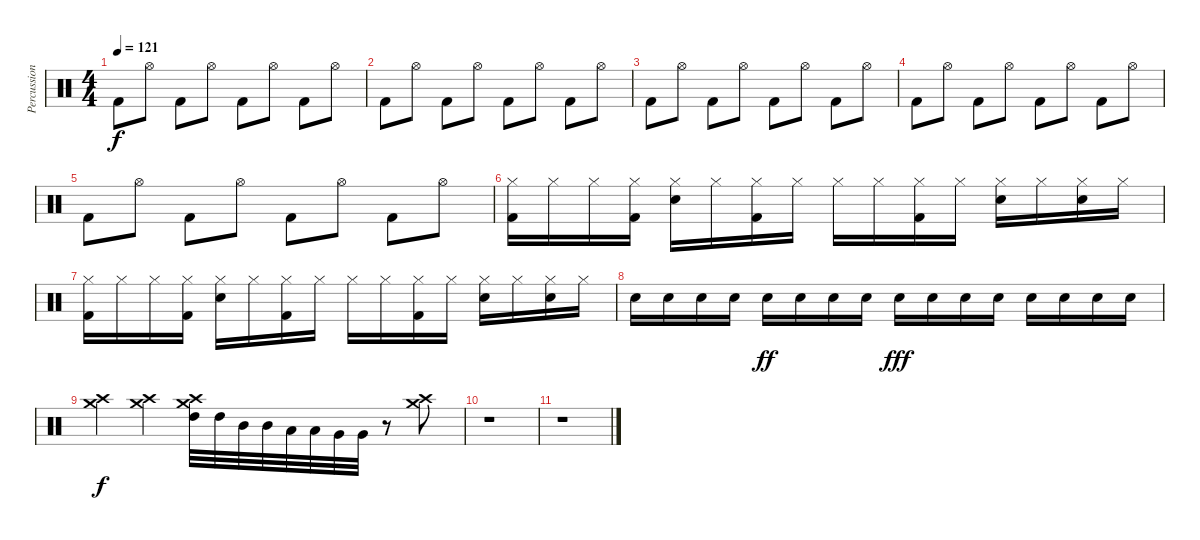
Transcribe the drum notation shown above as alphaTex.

\track ("Percussions" "Percussion") {instrument percussion}
\staff {score}
\articulation defaults
\ts (4 4)
\tempo 121
\clef neutral
\ks c "Kick (hit) 2".8{dy f} "Hi-Hat (open)".8 "Kick (hit) 2".8 "Hi-Hat (open)".8 "Kick (hit) 2".8 "Hi-Hat (open)".8 "Kick (hit) 2".8 "Hi-Hat (open)".8
|
"Kick (hit) 2".8 "Hi-Hat (open)".8 "Kick (hit) 2".8 "Hi-Hat (open)".8 "Kick (hit) 2".8 "Hi-Hat (open)".8 "Kick (hit) 2".8 "Hi-Hat (open)".8 |
"Kick (hit) 2".8 "Hi-Hat (open)".8 "Kick (hit) 2".8 "Hi-Hat (open)".8 "Kick (hit) 2".8 "Hi-Hat (open)".8 "Kick (hit) 2".8 "Hi-Hat (open)".8 |
"Kick (hit) 2".8 "Hi-Hat (open)".8 "Kick (hit) 2".8 "Hi-Hat (open)".8 "Kick (hit) 2".8 "Hi-Hat (open)".8 "Kick (hit) 2".8 "Hi-Hat (open)".8 |
"Kick (hit) 2".8 "Hi-Hat (open)".8 "Kick (hit) 2".8 "Hi-Hat (open)".8 "Kick (hit) 2".8 "Hi-Hat (open)".8 "Kick (hit) 2".8 "Hi-Hat (open)".8 |
("Hi-Hat (closed)" "Kick (hit) 2").16 "Hi-Hat (closed)".16 "Hi-Hat (closed)".16 ("Hi-Hat (closed)" "Kick (hit) 2").16 ("Hi-Hat (closed)" "Electric Snare (hit)").16 "Hi-Hat (closed)".16 ("Hi-Hat (closed)" "Kick (hit) 2").16 "Hi-Hat (closed)".16 "Hi-Hat (closed)".16 "Hi-Hat (closed)".16 ("Hi-Hat (closed)" "Kick (hit) 2").16 "Hi-Hat (closed)".16 ("Hi-Hat (closed)" "Electric Snare (hit)").16 "Hi-Hat (closed)".16 ("Hi-Hat (closed)" "Electric Snare (hit)").16 "Hi-Hat (closed)".16 |
("Hi-Hat (closed)" "Kick (hit) 2").16 "Hi-Hat (closed)".16 "Hi-Hat (closed)".16 ("Hi-Hat (closed)" "Kick (hit) 2").16 ("Hi-Hat (closed)" "Electric Snare (hit)").16 "Hi-Hat (closed)".16 ("Hi-Hat (closed)" "Kick (hit) 2").16 "Hi-Hat (closed)".16 "Hi-Hat (closed)".16 "Hi-Hat (closed)".16 ("Hi-Hat (closed)" "Kick (hit) 2").16 "Hi-Hat (closed)".16 ("Hi-Hat (closed)" "Electric Snare (hit)").16 "Hi-Hat (closed)".16 ("Hi-Hat (closed)" "Electric Snare (hit)").16 "Hi-Hat (closed)".16 |
"Electric Snare (hit)".16 "Electric Snare (hit)".16 "Electric Snare (hit)".16 "Electric Snare (hit)".16 "Electric Snare (hit)".16{dy ff} "Electric Snare (hit)".16 "Electric Snare (hit)".16 "Electric Snare (hit)".16 "Electric Snare (hit)".16{dy fff} "Electric Snare (hit)".16 "Electric Snare (hit)".16 "Electric Snare (hit)".16 "Electric Snare (hit)".16 "Electric Snare (hit)".16 "Electric Snare (hit)".16 "Electric Snare (hit)".16 |
("Crash high (hit)" "Crash medium (hit)").4{dy f} ("Crash high (hit)" "Crash medium (hit)").4 ("Crash high (hit)" "Crash medium (hit)" "High Tom (hit)").32 "High Tom (hit)".32 "Mid Tom (hit)".32 "Mid Tom (hit)".32 "Low Tom (hit)".32 "Low Tom (hit)".32 "Very Low Tom (hit)".32 "Very Low Tom (hit)".32 r.8 ("Crash high (hit)" "Crash medium (hit)").8 |
r.1 |
r.1
